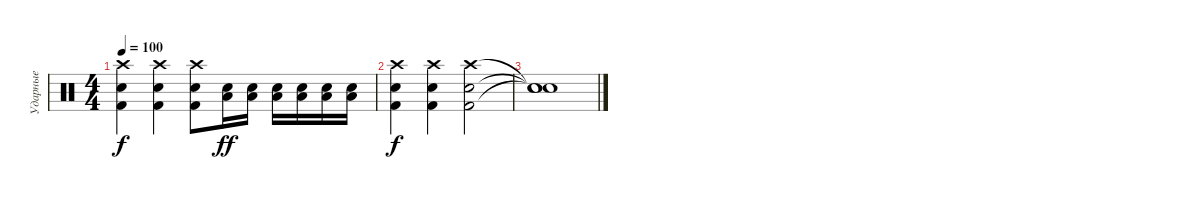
\track ("Ударные" "Ударные") {instrument percussion}
\staff {score}
\articulation defaults
\ts (4 4)
\tempo 100
\clef neutral
\ks c
("Crash high (hit)" "Electric Snare (hit)" "Kick (hit) 2").4{dy f} ("Crash high (hit)" "Electric Snare (hit)" "Kick (hit) 2").4 ("Crash high (hit)" "Electric Snare (hit)" "Kick (hit) 2").8 ("Low Floor Tom (hit)" "Electric Snare (hit)").16{dy ff} ("Low Floor Tom (hit)" "Electric Snare (hit)").16 ("Low Floor Tom (hit)" "Electric Snare (hit)").16 ("Low Floor Tom (hit)" "Electric Snare (hit)").16 ("Low Floor Tom (hit)" "Electric Snare (hit)").16 ("Low Floor Tom (hit)" "Electric Snare (hit)").16 |
("Crash high (hit)" "Electric Snare (hit)" "Kick (hit) 2").4{dy f} ("Crash high (hit)" "Electric Snare (hit)" "Kick (hit) 2").4 ("Crash high (hit)" "Electric Snare (hit)" "Kick (hit) 2").2 |
("Snare (hit)"{t} "Snare (hit)"{t} "Snare (hit)"{t}).1
